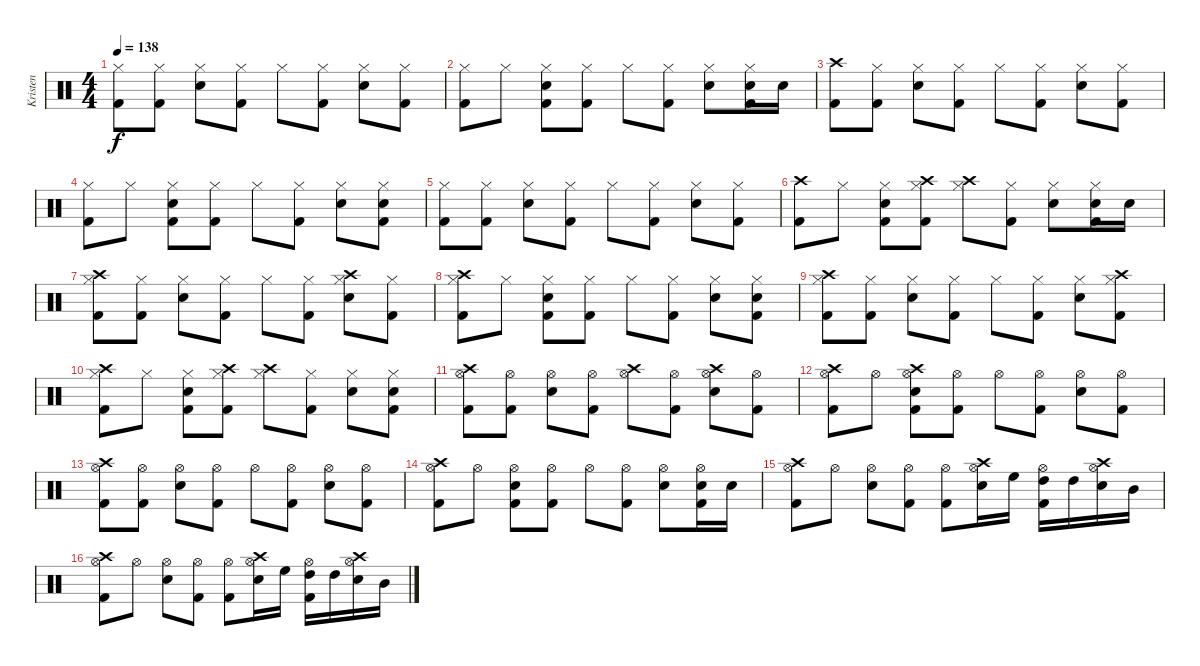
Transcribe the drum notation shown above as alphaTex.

\track ("Kristen" "Kristen") {instrument percussion}
\staff {score}
\articulation defaults
\ts (4 4)
\tempo 138
\clef neutral
\ks c
("Hi-Hat (closed)" "Kick (hit) 2").8{dy f} ("Hi-Hat (closed)" "Kick (hit) 2").8 ("Hi-Hat (closed)" "Snare (hit) 2").8 ("Hi-Hat (closed)" "Kick (hit) 2").8 "Hi-Hat (closed)".8 ("Hi-Hat (closed)" "Kick (hit) 2").8 ("Hi-Hat (closed)" "Snare (hit) 2").8 ("Hi-Hat (closed)" "Kick (hit) 2").8 |
("Hi-Hat (closed)" "Kick (hit) 2").8 "Hi-Hat (closed)".8 ("Hi-Hat (closed)" "Snare (hit) 2" "Kick (hit) 2").8 ("Hi-Hat (closed)" "Kick (hit) 2").8 "Hi-Hat (closed)".8 ("Hi-Hat (closed)" "Kick (hit) 2").8 ("Hi-Hat (closed)" "Snare (hit) 2").8 ("Hi-Hat (closed)" "Snare (hit) 2" "Kick (hit) 2").16 "Snare (hit) 2".16 |
("Crash high (hit)" "Kick (hit) 2").8 ("Hi-Hat (closed)" "Kick (hit) 2").8 ("Hi-Hat (closed)" "Snare (hit) 2").8 ("Hi-Hat (closed)" "Kick (hit) 2").8 "Hi-Hat (closed)".8 ("Hi-Hat (closed)" "Kick (hit) 2").8 ("Hi-Hat (closed)" "Snare (hit) 2").8 ("Hi-Hat (closed)" "Kick (hit) 2").8 |
("Hi-Hat (closed)" "Kick (hit) 2").8 "Hi-Hat (closed)".8 ("Hi-Hat (closed)" "Snare (hit) 2" "Kick (hit) 2").8 ("Hi-Hat (closed)" "Kick (hit) 2").8 "Hi-Hat (closed)".8 ("Hi-Hat (closed)" "Kick (hit) 2").8 ("Hi-Hat (closed)" "Snare (hit) 2").8 ("Hi-Hat (closed)" "Snare (hit) 2" "Kick (hit) 2").8 |
("Hi-Hat (closed)" "Kick (hit) 2").8 ("Hi-Hat (closed)" "Kick (hit) 2").8 ("Hi-Hat (closed)" "Snare (hit) 2").8 ("Hi-Hat (closed)" "Kick (hit) 2").8 "Hi-Hat (closed)".8 ("Hi-Hat (closed)" "Kick (hit) 2").8 ("Hi-Hat (closed)" "Snare (hit) 2").8 ("Hi-Hat (closed)" "Kick (hit) 2").8 |
("Crash high (hit)" "Kick (hit) 2").8 "Hi-Hat (closed)".8 ("Hi-Hat (closed)" "Snare (hit) 2" "Kick (hit) 2").8 ("Crash high (hit)" "Hi-Hat (closed)" "Kick (hit) 2").8 ("Crash high (hit)" "Hi-Hat (closed)").8 ("Hi-Hat (closed)" "Kick (hit) 2").8 ("Hi-Hat (closed)" "Snare (hit) 2").8 ("Hi-Hat (closed)" "Snare (hit) 2" "Kick (hit) 2").16 "Snare (hit) 2".16 |
("Crash high (hit)" "Hi-Hat (closed)" "Kick (hit) 2").8 ("Hi-Hat (closed)" "Kick (hit) 2").8 ("Hi-Hat (closed)" "Snare (hit) 2").8 ("Hi-Hat (closed)" "Kick (hit) 2").8 "Hi-Hat (closed)".8 ("Hi-Hat (closed)" "Kick (hit) 2").8 ("Crash high (hit)" "Hi-Hat (closed)" "Snare (hit) 2").8 ("Hi-Hat (closed)" "Kick (hit) 2").8 |
("Crash high (hit)" "Hi-Hat (closed)" "Kick (hit) 2").8 "Hi-Hat (closed)".8 ("Hi-Hat (closed)" "Snare (hit) 2" "Kick (hit) 2").8 ("Hi-Hat (closed)" "Kick (hit) 2").8 "Hi-Hat (closed)".8 ("Hi-Hat (closed)" "Kick (hit) 2").8 ("Hi-Hat (closed)" "Snare (hit) 2").8 ("Hi-Hat (closed)" "Snare (hit) 2" "Kick (hit) 2").8 |
("Crash high (hit)" "Hi-Hat (closed)" "Kick (hit) 2").8 ("Hi-Hat (closed)" "Kick (hit) 2").8 ("Hi-Hat (closed)" "Snare (hit) 2").8 ("Hi-Hat (closed)" "Kick (hit) 2").8 "Hi-Hat (closed)".8 ("Hi-Hat (closed)" "Kick (hit) 2").8 ("Hi-Hat (closed)" "Snare (hit) 2").8 ("Crash high (hit)" "Hi-Hat (closed)" "Kick (hit) 2").8 |
("Crash high (hit)" "Hi-Hat (closed)" "Kick (hit) 2").8 "Hi-Hat (closed)".8 ("Hi-Hat (closed)" "Snare (hit) 2" "Kick (hit) 2").8 ("Crash high (hit)" "Hi-Hat (closed)" "Kick (hit) 2").8 ("Crash high (hit)" "Hi-Hat (closed)").8 ("Hi-Hat (closed)" "Kick (hit) 2").8 ("Hi-Hat (closed)" "Snare (hit) 2").8 ("Hi-Hat (closed)" "Snare (hit) 2" "Kick (hit) 2").8 |
("Crash high (hit)" "Hi-Hat (open)" "Kick (hit) 2").8 ("Hi-Hat (open)" "Kick (hit) 2").8 ("Hi-Hat (open)" "Snare (hit) 2").8 ("Hi-Hat (open)" "Kick (hit) 2").8 ("Crash high (hit)" "Hi-Hat (open)").8 ("Hi-Hat (open)" "Kick (hit) 2").8 ("Crash high (hit)" "Hi-Hat (open)" "Snare (hit) 2").8 ("Hi-Hat (open)" "Kick (hit) 2").8 |
("Crash high (hit)" "Hi-Hat (open)" "Kick (hit) 2").8 "Hi-Hat (open)".8 ("Crash high (hit)" "Hi-Hat (open)" "Snare (hit) 2" "Kick (hit) 2").8 ("Hi-Hat (open)" "Kick (hit) 2").8 "Hi-Hat (open)".8 ("Hi-Hat (open)" "Kick (hit) 2").8 ("Hi-Hat (open)" "Snare (hit) 2").8 ("Hi-Hat (open)" "Kick (hit) 2").8 |
("Crash high (hit)" "Hi-Hat (open)" "Kick (hit) 2").8 ("Hi-Hat (open)" "Kick (hit) 2").8 ("Hi-Hat (open)" "Snare (hit) 2").8 ("Hi-Hat (open)" "Kick (hit) 2").8 "Hi-Hat (open)".8 ("Hi-Hat (open)" "Kick (hit) 2").8 ("Hi-Hat (open)" "Snare (hit) 2").8 ("Hi-Hat (open)" "Kick (hit) 2").8 |
("Crash high (hit)" "Hi-Hat (open)" "Kick (hit) 2").8 "Hi-Hat (open)".8 ("Hi-Hat (open)" "Snare (hit) 2" "Kick (hit) 2").8 ("Hi-Hat (open)" "Kick (hit) 2").8 "Hi-Hat (open)".8 ("Hi-Hat (open)" "Kick (hit) 2").8 ("Hi-Hat (open)" "Snare (hit) 2").8 ("Hi-Hat (open)" "Snare (hit) 2" "Kick (hit) 2").16 "Snare (hit) 2".16 |
("Crash high (hit)" "Hi-Hat (open)" "Kick (hit) 2").8 "Hi-Hat (open)".8 ("Hi-Hat (open)" "Snare (hit) 2").8 ("Hi-Hat (open)" "Kick (hit) 2").8 ("Hi-Hat (open)" "Kick (hit) 2").8 ("Crash high (hit)" "Hi-Hat (open)" "Snare (hit) 2").16 "High Floor Tom (hit)".16 ("High Tom (hit)" "Hi-Hat (open)" "Kick (hit) 2").16 "High Tom (hit)".16 ("Crash high (hit)" "Hi-Hat (open)" "Snare (hit) 2").16 "Mid Tom (hit)".16 |
("Crash high (hit)" "Hi-Hat (open)" "Kick (hit) 2").8 "Hi-Hat (open)".8 ("Hi-Hat (open)" "Snare (hit) 2").8 ("Hi-Hat (open)" "Kick (hit) 2").8 ("Hi-Hat (open)" "Kick (hit) 2").8 ("Crash high (hit)" "Hi-Hat (open)" "Snare (hit) 2").16 "High Floor Tom (hit)".16 ("High Tom (hit)" "Hi-Hat (open)" "Kick (hit) 2").16 "High Tom (hit)".16 ("Crash high (hit)" "Hi-Hat (open)" "Snare (hit) 2").16 "Mid Tom (hit)".16
